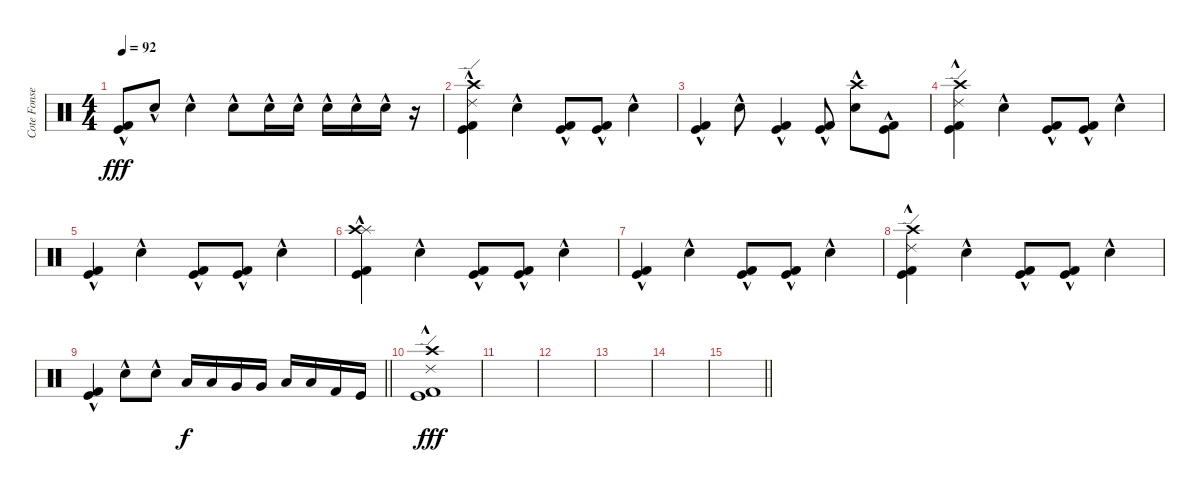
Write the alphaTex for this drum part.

\track ("Cote Fonsea" "Cote Fonse") {instrument percussion}
\staff {score}
\articulation defaults
\ts (4 4)
\tempo 92
\clef neutral
\ks c
("Kick (hit) 2"{hac} "Kick (hit)"{hac}).8{dy fff} "Snare (hit) 2"{hac}.8 "Snare (hit) 2"{hac}.4 "Snare (hit) 2"{hac}.8 "Snare (hit) 2"{hac}.16 "Snare (hit) 2"{hac}.16 "Snare (hit) 2"{hac}.16 "Snare (hit) 2"{hac}.16 "Snare (hit) 2"{hac}.16 r.16 |
("Ride (edge) 2"{hac} "Crash high (hit)"{hac} "Kick (hit) 2"{hac} "Kick (hit)"{hac}).4 "Snare (hit) 2"{hac}.4 ("Kick (hit) 2"{hac} "Kick (hit)").8 ("Kick (hit) 2"{hac} "Kick (hit)").8 "Snare (hit) 2"{hac}.4 |
("Kick (hit) 2"{hac} "Kick (hit)"{hac}).4 "Snare (hit) 2"{hac}.8 ("Kick (hit) 2"{hac} "Kick (hit)").4 ("Kick (hit) 2"{hac} "Kick (hit)").8 ("Crash high (hit)" "Snare (hit) 2"{hac}).8 ("Kick (hit) 2"{hac} "Kick (hit)"{hac}).8 |
("Ride (edge) 2" "Crash high (hit)"{hac} "Kick (hit) 2"{hac} "Kick (hit)"{hac}).4 "Snare (hit) 2"{hac}.4 ("Kick (hit) 2"{hac} "Kick (hit)").8 ("Kick (hit) 2"{hac} "Kick (hit)").8 "Snare (hit) 2"{hac}.4 |
("Kick (hit) 2"{hac} "Kick (hit)"{hac}).4 "Snare (hit) 2"{hac}.4 ("Kick (hit) 2"{hac} "Kick (hit)").8 ("Kick (hit) 2"{hac} "Kick (hit)").8 "Snare (hit) 2"{hac}.4 |
("Splash (hit)" "Crash high (hit)"{hac} "Kick (hit) 2"{hac} "Kick (hit)"{hac}).4 "Snare (hit) 2"{hac}.4 ("Kick (hit) 2"{hac} "Kick (hit)").8 ("Kick (hit) 2"{hac} "Kick (hit)").8 "Snare (hit) 2"{hac}.4 |
("Kick (hit) 2"{hac} "Kick (hit)"{hac}).4 "Snare (hit) 2"{hac}.4 ("Kick (hit) 2"{hac} "Kick (hit)").8 ("Kick (hit) 2"{hac} "Kick (hit)").8 "Snare (hit) 2"{hac}.4 |
("Crash high (hit)" "Ride (edge) 2" "Kick (hit) 2"{hac} "Kick (hit)"{hac}).4 "Snare (hit) 2"{hac}.4 ("Kick (hit) 2"{hac} "Kick (hit)").8 ("Kick (hit) 2"{hac} "Kick (hit)").8 "Snare (hit) 2"{hac}.4 |
\barLineRight lightlight
("Kick (hit) 2"{hac} "Kick (hit)"{hac}).4 "Snare (hit) 2"{hac}.8 "Snare (hit) 2"{hac}.8 "Low Tom (hit)".16{dy f} "Low Tom (hit)".16 "Very Low Tom (hit)".16 "Very Low Tom (hit)".16 "Low Floor Tom (hit)".16 "Low Floor Tom (hit)".16 "Kick (hit) 2".16 "Kick (hit)".16 |
("Crash high (hit)" "Ride (edge) 2" "Kick (hit)"{hac} "Kick (hit) 2"{hac}).1{dy fff} |
|
|
|
|
\barLineRight lightlight
